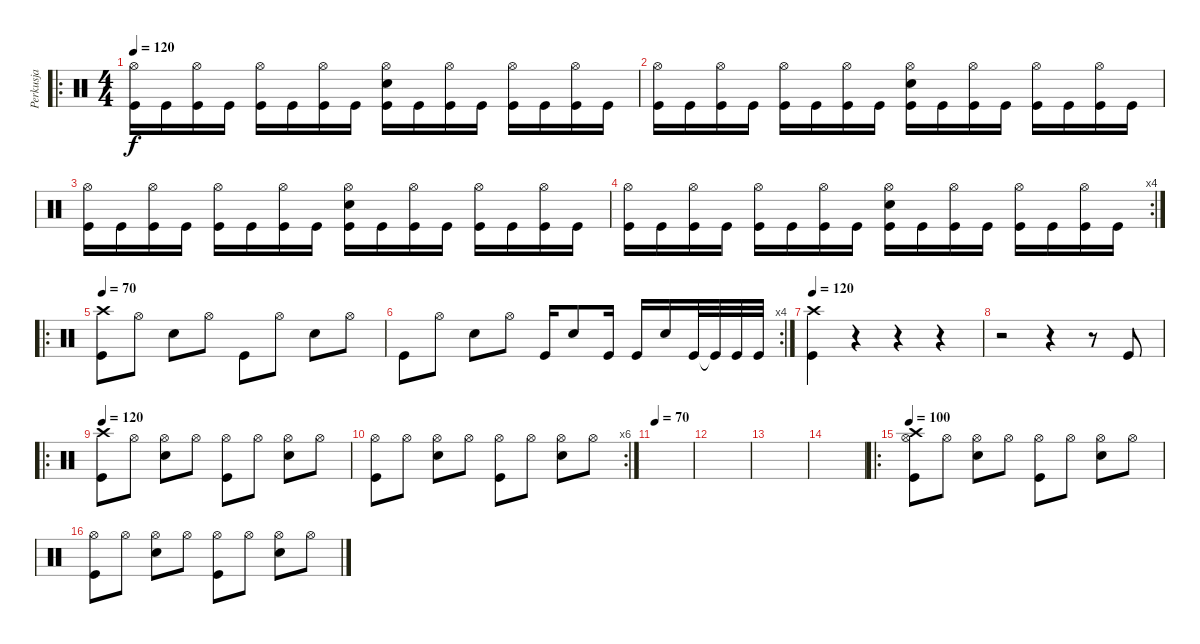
\track ("Perkusja" "Perkusja") {instrument percussion}
\staff {score}
\articulation defaults
\ro
\ts (4 4)
\tempo 120
\clef neutral
\ks c
("Hi-Hat (open)" "Kick (hit)").16{dy f} "Kick (hit)".16 ("Hi-Hat (open)" "Kick (hit)").16 "Kick (hit)".16 ("Hi-Hat (open)" "Kick (hit)").16 "Kick (hit)".16 ("Hi-Hat (open)" "Kick (hit)").16 "Kick (hit)".16 ("Snare (hit) 2" "Hi-Hat (open)" "Kick (hit)").16 "Kick (hit)".16 ("Hi-Hat (open)" "Kick (hit)").16 "Kick (hit)".16 ("Hi-Hat (open)" "Kick (hit)").16 "Kick (hit)".16 ("Hi-Hat (open)" "Kick (hit)").16 "Kick (hit)".16 |
("Hi-Hat (open)" "Kick (hit)").16 "Kick (hit)".16 ("Hi-Hat (open)" "Kick (hit)").16 "Kick (hit)".16 ("Hi-Hat (open)" "Kick (hit)").16 "Kick (hit)".16 ("Hi-Hat (open)" "Kick (hit)").16 "Kick (hit)".16 ("Snare (hit) 2" "Hi-Hat (open)" "Kick (hit)").16 "Kick (hit)".16 ("Hi-Hat (open)" "Kick (hit)").16 "Kick (hit)".16 ("Hi-Hat (open)" "Kick (hit)").16 "Kick (hit)".16 ("Hi-Hat (open)" "Kick (hit)").16 "Kick (hit)".16 |
("Hi-Hat (open)" "Kick (hit)").16 "Kick (hit)".16 ("Hi-Hat (open)" "Kick (hit)").16 "Kick (hit)".16 ("Hi-Hat (open)" "Kick (hit)").16 "Kick (hit)".16 ("Hi-Hat (open)" "Kick (hit)").16 "Kick (hit)".16 ("Snare (hit) 2" "Hi-Hat (open)" "Kick (hit)").16 "Kick (hit)".16 ("Hi-Hat (open)" "Kick (hit)").16 "Kick (hit)".16 ("Hi-Hat (open)" "Kick (hit)").16 "Kick (hit)".16 ("Hi-Hat (open)" "Kick (hit)").16 "Kick (hit)".16 |
\rc 4
("Hi-Hat (open)" "Kick (hit)").16 "Kick (hit)".16 ("Hi-Hat (open)" "Kick (hit)").16 "Kick (hit)".16 ("Hi-Hat (open)" "Kick (hit)").16 "Kick (hit)".16 ("Hi-Hat (open)" "Kick (hit)").16 "Kick (hit)".16 ("Snare (hit) 2" "Hi-Hat (open)" "Kick (hit)").16 "Kick (hit)".16 ("Hi-Hat (open)" "Kick (hit)").16 "Kick (hit)".16 ("Hi-Hat (open)" "Kick (hit)").16 "Kick (hit)".16 ("Hi-Hat (open)" "Kick (hit)").16 "Kick (hit)".16 |
\ro
\tempo 70
("Crash high (hit)" "Kick (hit)").8 "Hi-Hat (open)".8 "Snare (hit) 2".8 "Hi-Hat (open)".8 "Kick (hit)".8 "Hi-Hat (open)".8 "Snare (hit) 2".8 "Hi-Hat (open)".8 |
\rc 4 "Kick (hit)".8 "Hi-Hat (open)".8 "Snare (hit) 2".8 "Hi-Hat (open)".8 "Kick (hit)".16 "Snare (hit) 2".8 "Kick (hit)".16 "Kick (hit)".16 "Snare (hit) 2".16 "Kick (hit)".32 "Kick (hit)"{t}.32 "Kick (hit)".32 "Kick (hit)".32
|
\tempo 120
("Crash high (hit)" "Kick (hit)").4 r.4 r.4 r.4 |
r.2 r.4 r.8 "Kick (hit)".8 |
\ro
\tempo 120
("Crash high (hit)" "Kick (hit)").8 "Hi-Hat (open)".8 ("Snare (hit) 2" "Hi-Hat (open)").8 "Hi-Hat (open)".8 ("Kick (hit)" "Hi-Hat (open)").8 "Hi-Hat (open)".8 ("Snare (hit) 2" "Hi-Hat (open)").8 "Hi-Hat (open)".8 |
\rc 6
("Kick (hit)" "Hi-Hat (open)").8 "Hi-Hat (open)".8 ("Snare (hit) 2" "Hi-Hat (open)").8 "Hi-Hat (open)".8 ("Kick (hit)" "Hi-Hat (open)").8 "Hi-Hat (open)".8 ("Snare (hit) 2" "Hi-Hat (open)").8 "Hi-Hat (open)".8 |
\tempo 70
|
|
|
|
\ro
\tempo 100
("Crash high (hit)" "Hi-Hat (open)" "Kick (hit)").8 "Hi-Hat (open)".8 ("Snare (hit) 2" "Hi-Hat (open)").8 "Hi-Hat (open)".8 ("Kick (hit)" "Hi-Hat (open)").8 "Hi-Hat (open)".8 ("Snare (hit) 2" "Hi-Hat (open)").8 "Hi-Hat (open)".8 |
("Kick (hit)" "Hi-Hat (open)").8 "Hi-Hat (open)".8 ("Snare (hit) 2" "Hi-Hat (open)").8 "Hi-Hat (open)".8 ("Kick (hit)" "Hi-Hat (open)").8 "Hi-Hat (open)".8 ("Snare (hit) 2" "Hi-Hat (open)").8 "Hi-Hat (open)".8
